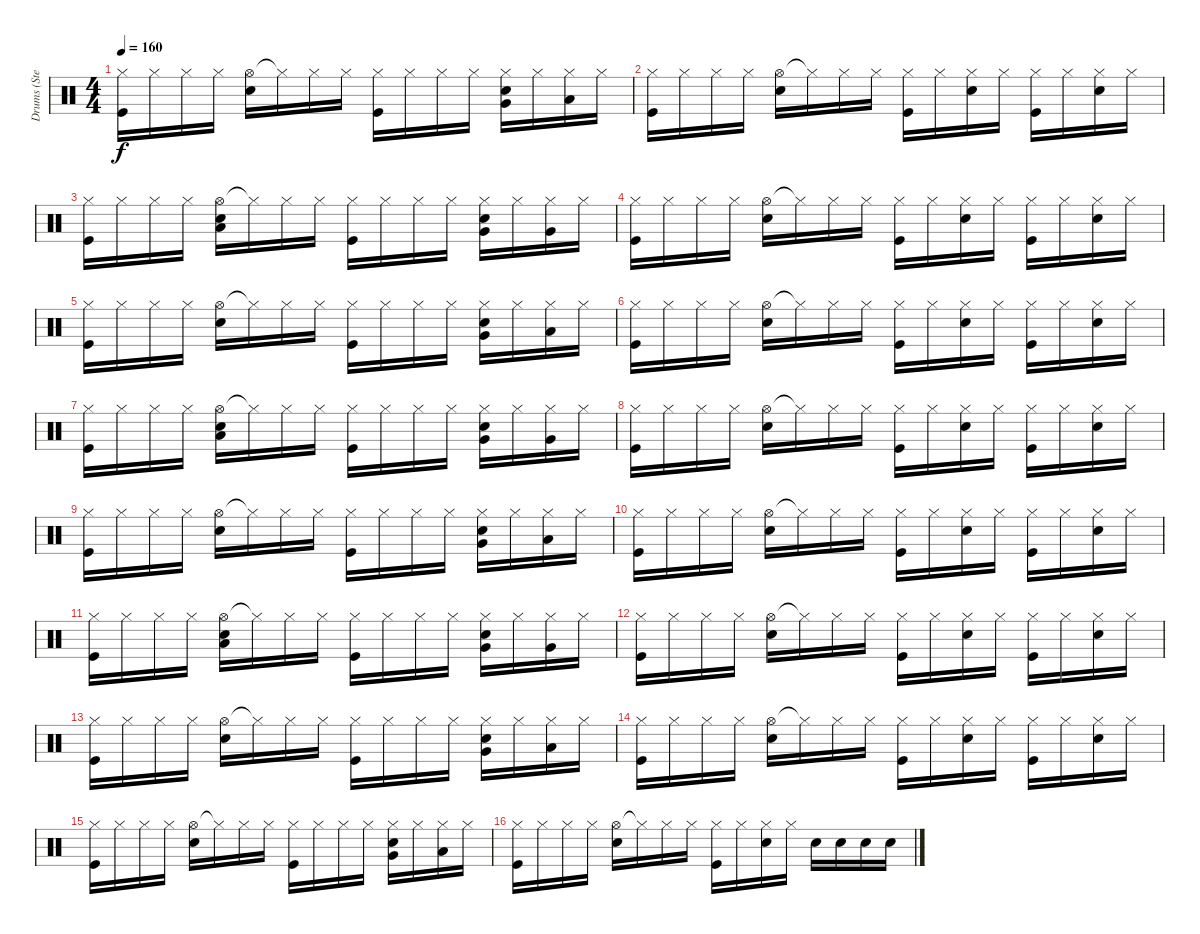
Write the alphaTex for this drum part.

\track ("Drums (Stephen Morris)" "Drums (Ste") {instrument percussion}
\staff {score}
\articulation defaults
\ts (4 4)
\tempo 160
\clef neutral
\ks c
("Hi-Hat (closed)" "Kick (hit)").16{dy f} "Hi-Hat (closed)".16 "Hi-Hat (closed)".16 "Hi-Hat (closed)".16 ("Hi-Hat (open)" "Electric Snare (hit)").16 "Hi-Hat (closed)"{t}.16 "Hi-Hat (closed)".16 "Hi-Hat (closed)".16 ("Hi-Hat (closed)" "Kick (hit)").16 "Hi-Hat (closed)".16 "Hi-Hat (closed)".16 "Hi-Hat (closed)".16 ("Hi-Hat (closed)" "Very Low Tom (hit)" "Electric Snare (hit)").16 "Hi-Hat (closed)".16 ("Hi-Hat (closed)" "Low Tom (hit)").16 "Hi-Hat (closed)".16 |
("Hi-Hat (closed)" "Kick (hit)").16 "Hi-Hat (closed)".16 "Hi-Hat (closed)".16 "Hi-Hat (closed)".16 ("Hi-Hat (open)" "Electric Snare (hit)").16 "Hi-Hat (closed)"{t}.16 "Hi-Hat (closed)".16 "Hi-Hat (closed)".16 ("Hi-Hat (closed)" "Kick (hit)").16 "Hi-Hat (closed)".16 ("Hi-Hat (closed)" "Electric Snare (hit)").16 "Hi-Hat (closed)".16 ("Hi-Hat (closed)" "Kick (hit)").16 "Hi-Hat (closed)".16 ("Hi-Hat (closed)" "Electric Snare (hit)").16 "Hi-Hat (closed)".16 |
("Hi-Hat (closed)" "Kick (hit)").16 "Hi-Hat (closed)".16 "Hi-Hat (closed)".16 "Hi-Hat (closed)".16 ("Hi-Hat (open)" "Low Tom (hit)" "Electric Snare (hit)").16 "Hi-Hat (closed)"{t}.16 "Hi-Hat (closed)".16 "Hi-Hat (closed)".16 ("Hi-Hat (closed)" "Kick (hit)").16 "Hi-Hat (closed)".16 "Hi-Hat (closed)".16 "Hi-Hat (closed)".16 ("Hi-Hat (closed)" "Very Low Tom (hit)" "Electric Snare (hit)").16 "Hi-Hat (closed)".16 ("Hi-Hat (closed)" "Very Low Tom (hit)").16 "Hi-Hat (closed)".16 |
("Hi-Hat (closed)" "Kick (hit)").16 "Hi-Hat (closed)".16 "Hi-Hat (closed)".16 "Hi-Hat (closed)".16 ("Hi-Hat (open)" "Electric Snare (hit)").16 "Hi-Hat (closed)"{t}.16 "Hi-Hat (closed)".16 "Hi-Hat (closed)".16 ("Hi-Hat (closed)" "Kick (hit)").16 "Hi-Hat (closed)".16 ("Hi-Hat (closed)" "Electric Snare (hit)").16 "Hi-Hat (closed)".16 ("Hi-Hat (closed)" "Kick (hit)").16 "Hi-Hat (closed)".16 ("Hi-Hat (closed)" "Electric Snare (hit)").16 "Hi-Hat (closed)".16 |
("Hi-Hat (closed)" "Kick (hit)").16 "Hi-Hat (closed)".16 "Hi-Hat (closed)".16 "Hi-Hat (closed)".16 ("Hi-Hat (open)" "Electric Snare (hit)").16 "Hi-Hat (closed)"{t}.16 "Hi-Hat (closed)".16 "Hi-Hat (closed)".16 ("Hi-Hat (closed)" "Kick (hit)").16 "Hi-Hat (closed)".16 "Hi-Hat (closed)".16 "Hi-Hat (closed)".16 ("Hi-Hat (closed)" "Very Low Tom (hit)" "Electric Snare (hit)").16 "Hi-Hat (closed)".16 ("Hi-Hat (closed)" "Low Tom (hit)").16 "Hi-Hat (closed)".16 |
("Hi-Hat (closed)" "Kick (hit)").16 "Hi-Hat (closed)".16 "Hi-Hat (closed)".16 "Hi-Hat (closed)".16 ("Hi-Hat (open)" "Electric Snare (hit)").16 "Hi-Hat (closed)"{t}.16 "Hi-Hat (closed)".16 "Hi-Hat (closed)".16 ("Hi-Hat (closed)" "Kick (hit)").16 "Hi-Hat (closed)".16 ("Hi-Hat (closed)" "Electric Snare (hit)").16 "Hi-Hat (closed)".16 ("Hi-Hat (closed)" "Kick (hit)").16 "Hi-Hat (closed)".16 ("Hi-Hat (closed)" "Electric Snare (hit)").16 "Hi-Hat (closed)".16 |
("Hi-Hat (closed)" "Kick (hit)").16 "Hi-Hat (closed)".16 "Hi-Hat (closed)".16 "Hi-Hat (closed)".16 ("Hi-Hat (open)" "Low Tom (hit)" "Electric Snare (hit)").16 "Hi-Hat (closed)"{t}.16 "Hi-Hat (closed)".16 "Hi-Hat (closed)".16 ("Hi-Hat (closed)" "Kick (hit)").16 "Hi-Hat (closed)".16 "Hi-Hat (closed)".16 "Hi-Hat (closed)".16 ("Hi-Hat (closed)" "Very Low Tom (hit)" "Electric Snare (hit)").16 "Hi-Hat (closed)".16 ("Hi-Hat (closed)" "Very Low Tom (hit)").16 "Hi-Hat (closed)".16 |
("Hi-Hat (closed)" "Kick (hit)").16 "Hi-Hat (closed)".16 "Hi-Hat (closed)".16 "Hi-Hat (closed)".16 ("Hi-Hat (open)" "Electric Snare (hit)").16 "Hi-Hat (closed)"{t}.16 "Hi-Hat (closed)".16 "Hi-Hat (closed)".16 ("Hi-Hat (closed)" "Kick (hit)").16 "Hi-Hat (closed)".16 ("Hi-Hat (closed)" "Electric Snare (hit)").16 "Hi-Hat (closed)".16 ("Hi-Hat (closed)" "Kick (hit)").16 "Hi-Hat (closed)".16 ("Hi-Hat (closed)" "Electric Snare (hit)").16 "Hi-Hat (closed)".16 |
("Hi-Hat (closed)" "Kick (hit)").16 "Hi-Hat (closed)".16 "Hi-Hat (closed)".16 "Hi-Hat (closed)".16 ("Hi-Hat (open)" "Electric Snare (hit)").16 "Hi-Hat (closed)"{t}.16 "Hi-Hat (closed)".16 "Hi-Hat (closed)".16 ("Hi-Hat (closed)" "Kick (hit)").16 "Hi-Hat (closed)".16 "Hi-Hat (closed)".16 "Hi-Hat (closed)".16 ("Hi-Hat (closed)" "Very Low Tom (hit)" "Electric Snare (hit)").16 "Hi-Hat (closed)".16 ("Hi-Hat (closed)" "Low Tom (hit)").16 "Hi-Hat (closed)".16 |
("Hi-Hat (closed)" "Kick (hit)").16 "Hi-Hat (closed)".16 "Hi-Hat (closed)".16 "Hi-Hat (closed)".16 ("Hi-Hat (open)" "Electric Snare (hit)").16 "Hi-Hat (closed)"{t}.16 "Hi-Hat (closed)".16 "Hi-Hat (closed)".16 ("Hi-Hat (closed)" "Kick (hit)").16 "Hi-Hat (closed)".16 ("Hi-Hat (closed)" "Electric Snare (hit)").16 "Hi-Hat (closed)".16 ("Hi-Hat (closed)" "Kick (hit)").16 "Hi-Hat (closed)".16 ("Hi-Hat (closed)" "Electric Snare (hit)").16 "Hi-Hat (closed)".16 |
("Hi-Hat (closed)" "Kick (hit)").16 "Hi-Hat (closed)".16 "Hi-Hat (closed)".16 "Hi-Hat (closed)".16 ("Hi-Hat (open)" "Low Tom (hit)" "Electric Snare (hit)").16 "Hi-Hat (closed)"{t}.16 "Hi-Hat (closed)".16 "Hi-Hat (closed)".16 ("Hi-Hat (closed)" "Kick (hit)").16 "Hi-Hat (closed)".16 "Hi-Hat (closed)".16 "Hi-Hat (closed)".16 ("Hi-Hat (closed)" "Very Low Tom (hit)" "Electric Snare (hit)").16 "Hi-Hat (closed)".16 ("Hi-Hat (closed)" "Very Low Tom (hit)").16 "Hi-Hat (closed)".16 |
("Hi-Hat (closed)" "Kick (hit)").16 "Hi-Hat (closed)".16 "Hi-Hat (closed)".16 "Hi-Hat (closed)".16 ("Hi-Hat (open)" "Electric Snare (hit)").16 "Hi-Hat (closed)"{t}.16 "Hi-Hat (closed)".16 "Hi-Hat (closed)".16 ("Hi-Hat (closed)" "Kick (hit)").16 "Hi-Hat (closed)".16 ("Hi-Hat (closed)" "Electric Snare (hit)").16 "Hi-Hat (closed)".16 ("Hi-Hat (closed)" "Kick (hit)").16 "Hi-Hat (closed)".16 ("Hi-Hat (closed)" "Electric Snare (hit)").16 "Hi-Hat (closed)".16 |
("Hi-Hat (closed)" "Kick (hit)").16 "Hi-Hat (closed)".16 "Hi-Hat (closed)".16 "Hi-Hat (closed)".16 ("Hi-Hat (open)" "Electric Snare (hit)").16 "Hi-Hat (closed)"{t}.16 "Hi-Hat (closed)".16 "Hi-Hat (closed)".16 ("Hi-Hat (closed)" "Kick (hit)").16 "Hi-Hat (closed)".16 "Hi-Hat (closed)".16 "Hi-Hat (closed)".16 ("Hi-Hat (closed)" "Very Low Tom (hit)" "Electric Snare (hit)").16 "Hi-Hat (closed)".16 ("Hi-Hat (closed)" "Low Tom (hit)").16 "Hi-Hat (closed)".16 |
("Hi-Hat (closed)" "Kick (hit)").16 "Hi-Hat (closed)".16 "Hi-Hat (closed)".16 "Hi-Hat (closed)".16 ("Hi-Hat (open)" "Electric Snare (hit)").16 "Hi-Hat (closed)"{t}.16 "Hi-Hat (closed)".16 "Hi-Hat (closed)".16 ("Hi-Hat (closed)" "Kick (hit)").16 "Hi-Hat (closed)".16 ("Hi-Hat (closed)" "Electric Snare (hit)").16 "Hi-Hat (closed)".16 ("Hi-Hat (closed)" "Kick (hit)").16 "Hi-Hat (closed)".16 ("Hi-Hat (closed)" "Electric Snare (hit)").16 "Hi-Hat (closed)".16 |
("Hi-Hat (closed)" "Kick (hit)").16 "Hi-Hat (closed)".16 "Hi-Hat (closed)".16 "Hi-Hat (closed)".16 ("Hi-Hat (open)" "Electric Snare (hit)").16 "Hi-Hat (closed)"{t}.16 "Hi-Hat (closed)".16 "Hi-Hat (closed)".16 ("Hi-Hat (closed)" "Kick (hit)").16 "Hi-Hat (closed)".16 "Hi-Hat (closed)".16 "Hi-Hat (closed)".16 ("Hi-Hat (closed)" "Very Low Tom (hit)" "Electric Snare (hit)").16 "Hi-Hat (closed)".16 ("Hi-Hat (closed)" "Low Tom (hit)").16 "Hi-Hat (closed)".16 |
("Hi-Hat (closed)" "Kick (hit)").16 "Hi-Hat (closed)".16 "Hi-Hat (closed)".16 "Hi-Hat (closed)".16 ("Hi-Hat (open)" "Electric Snare (hit)").16 "Hi-Hat (closed)"{t}.16 "Hi-Hat (closed)".16 "Hi-Hat (closed)".16 ("Hi-Hat (closed)" "Kick (hit)").16 "Hi-Hat (closed)".16 ("Hi-Hat (closed)" "Electric Snare (hit)").16 "Hi-Hat (closed)".16 "Electric Snare (hit)".16 "Electric Snare (hit)".16 "Electric Snare (hit)".16 "Electric Snare (hit)".16
